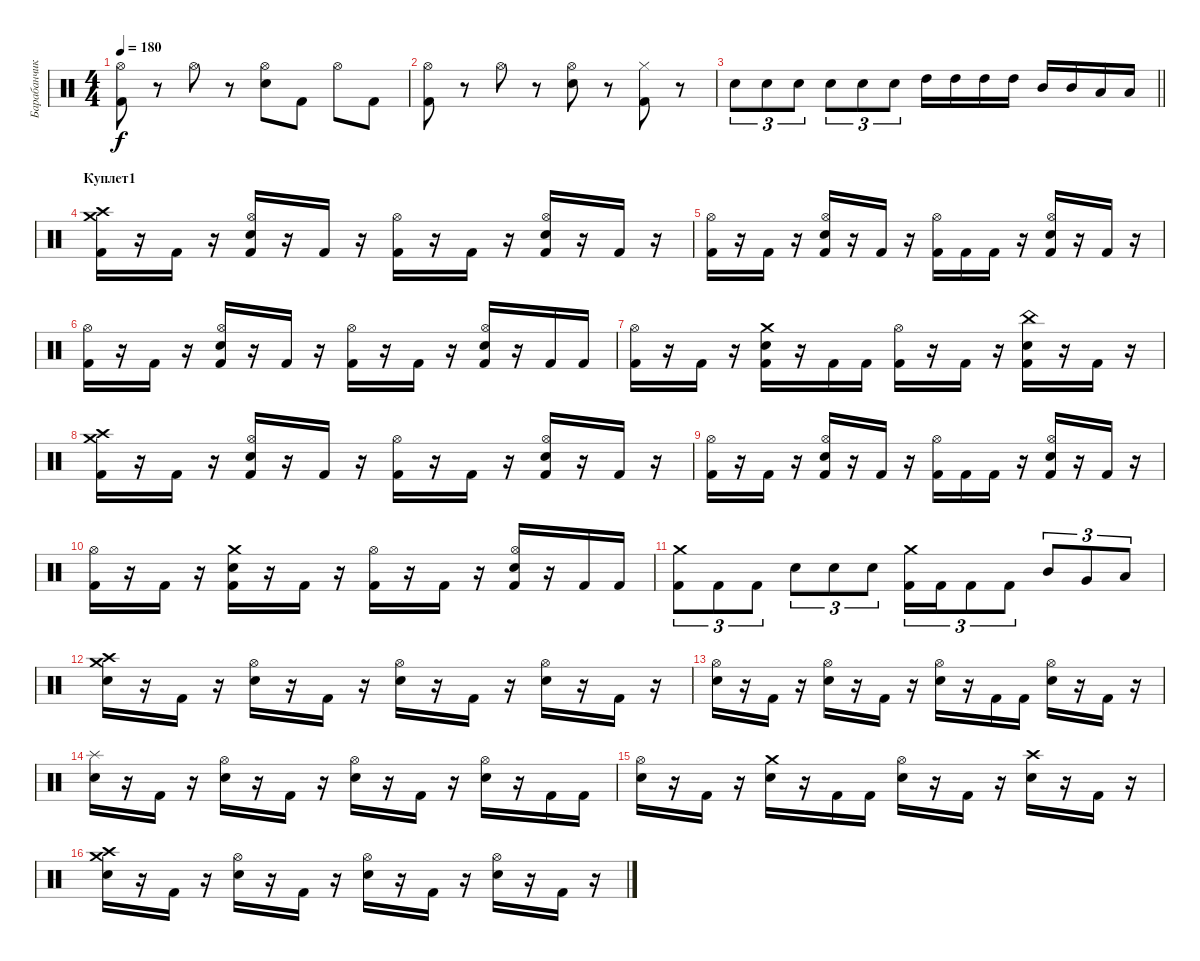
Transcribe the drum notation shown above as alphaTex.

\track ("Барабанчики" "Барабанчик") {instrument percussion}
\staff {score}
\articulation defaults
\ts (4 4)
\tempo 180
\clef neutral
\ks c
("Kick (hit) 2" "Hi-Hat (open)").8{dy f} r.8 "Hi-Hat (open)".8 r.8 ("Electric Snare (hit)" "Hi-Hat (open)").8 "Kick (hit) 2".8 "Hi-Hat (open)".8 "Kick (hit) 2".8 |
("Kick (hit) 2" "Hi-Hat (open)").8 r.8 "Hi-Hat (open)".8 r.8 ("Electric Snare (hit)" "Hi-Hat (open)").8 r.8 ("Kick (hit) 2" "Hi-Hat (closed)").8 r.8 |
\barLineRight lightlight "Electric Snare (hit)".8{tu (3 2)} "Electric Snare (hit)".8{tu (3 2)} "Electric Snare (hit)".8{tu (3 2)} "Electric Snare (hit)".8{tu (3 2)} "Electric Snare (hit)".8{tu (3 2)} "Electric Snare (hit)".8{tu (3 2)} "High Tom (hit)".16 "High Tom (hit)".16 "High Tom (hit)".16 "High Tom (hit)".16 "Mid Tom (hit)".16 "Mid Tom (hit)".16 "Low Tom (hit)".16 "Low Tom (hit)".16
|
\section ("" "Куплет1")
("Kick (hit) 2" "Crash high (hit)" "Crash medium (hit)").16 r.16 "Kick (hit) 2".16 r.16 ("Kick (hit) 2" "Electric Snare (hit)" "Hi-Hat (open)").16 r.16 "Kick (hit) 2".16 r.16 ("Kick (hit) 2" "Hi-Hat (open)").16 r.16 "Kick (hit) 2".16 r.16 ("Kick (hit) 2" "Electric Snare (hit)" "Hi-Hat (open)").16 r.16 "Kick (hit) 2".16 r.16 |
("Kick (hit) 2" "Hi-Hat (open)").16 r.16 "Kick (hit) 2".16 r.16 ("Kick (hit) 2" "Electric Snare (hit)" "Hi-Hat (open)").16 r.16 "Kick (hit) 2".16 r.16 ("Kick (hit) 2" "Hi-Hat (open)").16 "Kick (hit) 2".16 "Kick (hit) 2".16 r.16 ("Kick (hit) 2" "Electric Snare (hit)" "Hi-Hat (open)").16 r.16 "Kick (hit) 2".16 r.16 |
("Kick (hit) 2" "Hi-Hat (open)").16 r.16 "Kick (hit) 2".16 r.16 ("Kick (hit) 2" "Electric Snare (hit)" "Hi-Hat (open)").16 r.16 "Kick (hit) 2".16 r.16 ("Kick (hit) 2" "Hi-Hat (open)").16 r.16 "Kick (hit) 2".16 r.16 ("Kick (hit) 2" "Electric Snare (hit)" "Hi-Hat (open)").16 r.16 "Kick (hit) 2".16 "Kick (hit) 2".16 |
("Kick (hit) 2" "Hi-Hat (open)").16 r.16 "Kick (hit) 2".16 r.16 ("Kick (hit) 2" "Electric Snare (hit)" "Crash medium (hit)").16 r.16 "Kick (hit) 2".16 "Kick (hit) 2".16 ("Kick (hit) 2" "Hi-Hat (open)").16 r.16 "Kick (hit) 2".16 r.16 ("Kick (hit) 2" "Electric Snare (hit)" "China (hit)").16 r.16 "Kick (hit) 2".16 r.16 |
("Kick (hit) 2" "Crash high (hit)" "Crash medium (hit)").16 r.16 "Kick (hit) 2".16 r.16 ("Kick (hit) 2" "Electric Snare (hit)" "Hi-Hat (open)").16 r.16 "Kick (hit) 2".16 r.16 ("Kick (hit) 2" "Hi-Hat (open)").16 r.16 "Kick (hit) 2".16 r.16 ("Kick (hit) 2" "Electric Snare (hit)" "Hi-Hat (open)").16 r.16 "Kick (hit) 2".16 r.16 |
("Kick (hit) 2" "Hi-Hat (open)").16 r.16 "Kick (hit) 2".16 r.16 ("Kick (hit) 2" "Electric Snare (hit)" "Hi-Hat (open)").16 r.16 "Kick (hit) 2".16 r.16 ("Kick (hit) 2" "Hi-Hat (open)").16 "Kick (hit) 2".16 "Kick (hit) 2".16 r.16 ("Kick (hit) 2" "Electric Snare (hit)" "Hi-Hat (open)").16 r.16 "Kick (hit) 2".16 r.16 |
("Kick (hit) 2" "Hi-Hat (open)").16 r.16 "Kick (hit) 2".16 r.16 ("Kick (hit) 2" "Electric Snare (hit)" "Crash medium (hit)").16 r.16 "Kick (hit) 2".16 r.16 ("Kick (hit) 2" "Hi-Hat (open)").16 r.16 "Kick (hit) 2".16 r.16 ("Kick (hit) 2" "Electric Snare (hit)" "Hi-Hat (open)").16 r.16 "Kick (hit) 2".16 "Kick (hit) 2".16 |
("Kick (hit) 2" "Crash medium (hit)").8{tu (3 2)} "Kick (hit) 2".8{tu (3 2)} "Kick (hit) 2".8{tu (3 2)} "Electric Snare (hit)".8{tu (3 2)} "Electric Snare (hit)".8{tu (3 2)} "Electric Snare (hit)".8{tu (3 2)} ("Kick (hit) 2" "Crash medium (hit)").16{tu (3 2)} "Kick (hit) 2".16{tu (3 2)} "Kick (hit) 2".8{tu (3 2)} "Kick (hit) 2".8{tu (3 2)} "Mid Tom (hit)".8{tu (3 2)} "Very Low Tom (hit)".8{tu (3 2)} "Low Tom (hit)".8{tu (3 2)} |
("Electric Snare (hit)" "Crash high (hit)" "Crash medium (hit)").16 r.16 "Kick (hit) 2".16 r.16 ("Electric Snare (hit)" "Hi-Hat (open)").16 r.16 "Kick (hit) 2".16 r.16 ("Electric Snare (hit)" "Hi-Hat (open)").16 r.16 "Kick (hit) 2".16 r.16 ("Electric Snare (hit)" "Hi-Hat (open)").16 r.16 "Kick (hit) 2".16 r.16 |
("Electric Snare (hit)" "Hi-Hat (open)").16 r.16 "Kick (hit) 2".16 r.16 ("Electric Snare (hit)" "Hi-Hat (open)").16 r.16 "Kick (hit) 2".16 r.16 ("Electric Snare (hit)" "Hi-Hat (open)").16 r.16 "Kick (hit) 2".16 "Kick (hit) 2".16 ("Electric Snare (hit)" "Hi-Hat (open)").16 r.16 "Kick (hit) 2".16 r.16 |
("Electric Snare (hit)" "Splash (hit)").16 r.16 "Kick (hit) 2".16 r.16 ("Electric Snare (hit)" "Hi-Hat (open)").16 r.16 "Kick (hit) 2".16 r.16 ("Electric Snare (hit)" "Hi-Hat (open)").16 r.16 "Kick (hit) 2".16 r.16 ("Electric Snare (hit)" "Hi-Hat (open)").16 r.16 "Kick (hit) 2".16 "Kick (hit) 2".16 |
("Electric Snare (hit)" "Hi-Hat (open)").16 r.16 "Kick (hit) 2".16 r.16 ("Electric Snare (hit)" "Crash medium (hit)").16 r.16 "Kick (hit) 2".16 "Kick (hit) 2".16 ("Electric Snare (hit)" "Hi-Hat (open)").16 r.16 "Kick (hit) 2".16 r.16 ("Electric Snare (hit)" "Crash high (hit)").16 r.16 "Kick (hit) 2".16 r.16 |
("Electric Snare (hit)" "Crash high (hit)" "Crash medium (hit)").16 r.16 "Kick (hit) 2".16 r.16 ("Electric Snare (hit)" "Hi-Hat (open)").16 r.16 "Kick (hit) 2".16 r.16 ("Electric Snare (hit)" "Hi-Hat (open)").16 r.16 "Kick (hit) 2".16 r.16 ("Electric Snare (hit)" "Hi-Hat (open)").16 r.16 "Kick (hit) 2".16 r.16
